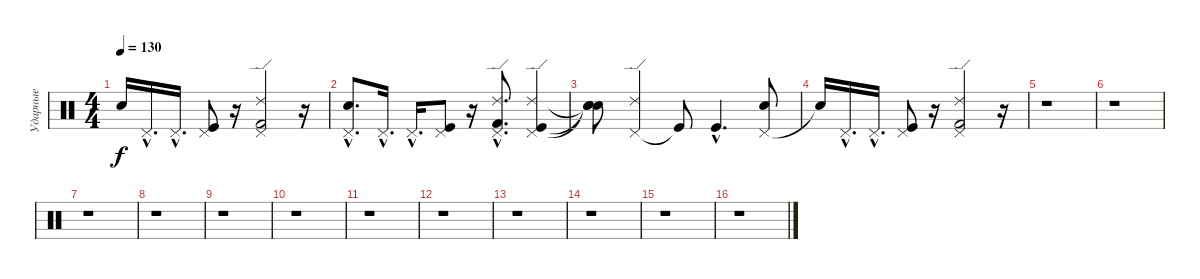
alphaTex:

\track ("Ударные" "Ударные") {instrument percussion}
\staff {score}
\articulation defaults
\ts (4 4)
\tempo 130
\clef neutral
\ks c "Snare (hit)"{t}.16{dy f} "Pedal Hi-Hat (hit)"{hac}.16{d} "Pedal Hi-Hat (hit)"{hac}.16{d}
("Pedal Hi-Hat (hit)" "Kick (hit)").8 r.16 ("Pedal Hi-Hat (hit)" "Ride (edge) 2" "Kick (hit) 2").2 r.16 |
("Pedal Hi-Hat (hit)"{hac} "Electric Snare (hit)"{hac}).8{d} "Pedal Hi-Hat (hit)"{hac}.16{d} "Pedal Hi-Hat (hit)"{hac}.16{d} ("Pedal Hi-Hat (hit)" "Kick (hit)").8 r.16 ("Pedal Hi-Hat (hit)"{hac} "Ride (edge) 2"{hac} "Kick (hit) 2"{hac}).8{d} ("Pedal Hi-Hat (hit)" "Ride (edge) 2" "Kick (hit)").4 |
("Snare (hit)"{t} "Snare (hit)"{t} "Snare (hit)"{t}).8 ("Pedal Hi-Hat (hit)" "Ride (edge) 2").4 "Kick (hit)"{t}.8 "Kick (hit)"{hac}.4{d} ("Pedal Hi-Hat (hit)" "Electric Snare (hit)").8 |
"Snare (hit)"{t}.16 "Pedal Hi-Hat (hit)"{hac}.16{d} "Pedal Hi-Hat (hit)"{hac}.16{d} ("Pedal Hi-Hat (hit)" "Kick (hit)").8 r.16 ("Pedal Hi-Hat (hit)" "Ride (edge) 2" "Kick (hit) 2").2 r.16 |
r.1 |
r.1 |
r.1 |
r.1 |
r.1 |
r.1 |
r.1 |
r.1 |
r.1 |
r.1 |
r.1 |
r.1
